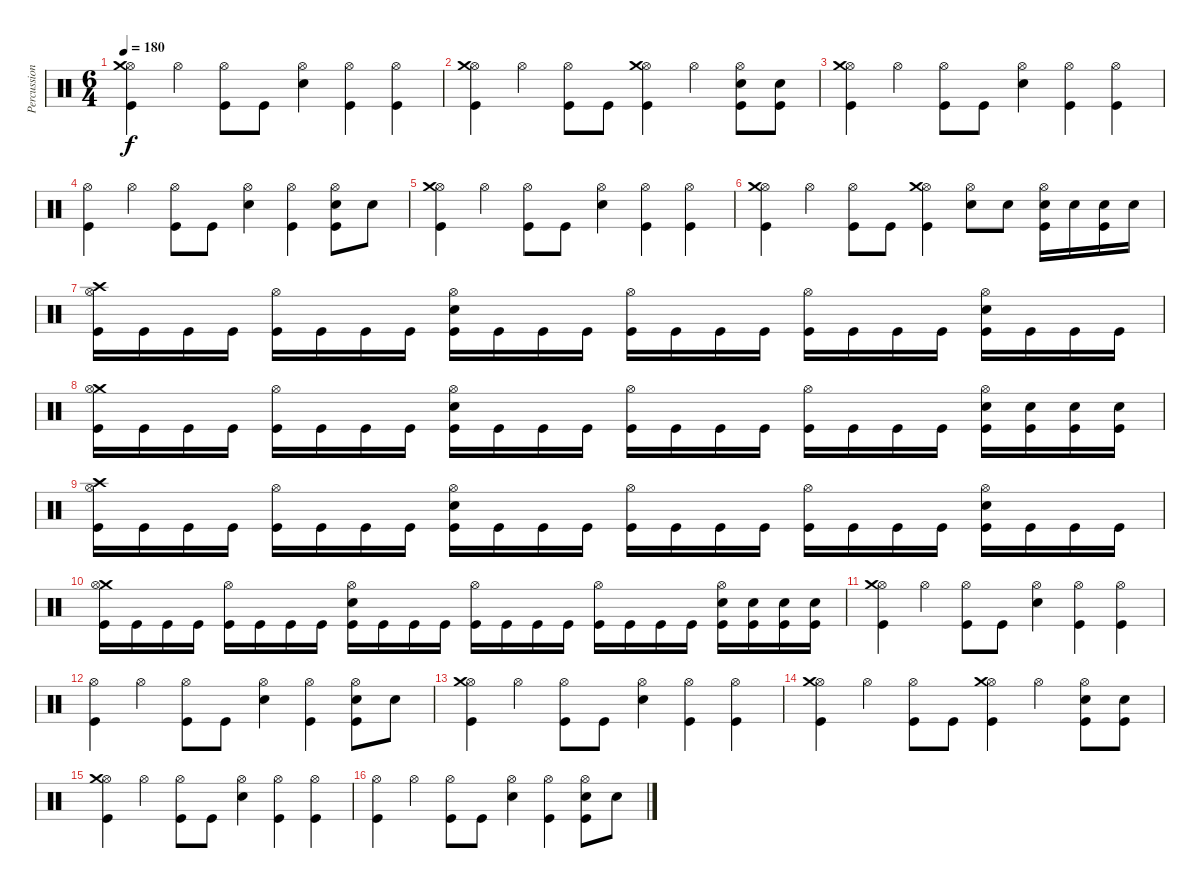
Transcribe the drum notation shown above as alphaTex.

\track ("Percussion" "Percussion") {instrument percussion}
\staff {score}
\articulation defaults
\ts (6 4)
\tempo 180
\clef neutral
\ks c
("Hi-Hat (open)" "Crash medium (hit)" "Kick (hit)").4{dy f} "Hi-Hat (open)".4 ("Hi-Hat (open)" "Kick (hit)").8 "Kick (hit)".8 ("Hi-Hat (open)" "Electric Snare (hit)").4 ("Hi-Hat (open)" "Kick (hit)").4 ("Hi-Hat (open)" "Kick (hit)").4 |
("Hi-Hat (open)" "Crash medium (hit)" "Kick (hit)").4 "Hi-Hat (open)".4 ("Hi-Hat (open)" "Kick (hit)").8 "Kick (hit)".8 ("Hi-Hat (open)" "Crash medium (hit)" "Kick (hit)").4 "Hi-Hat (open)".4 ("Hi-Hat (open)" "Electric Snare (hit)" "Kick (hit)").8 ("Electric Snare (hit)" "Kick (hit)").8 |
("Hi-Hat (open)" "Crash medium (hit)" "Kick (hit)").4 "Hi-Hat (open)".4 ("Hi-Hat (open)" "Kick (hit)").8 "Kick (hit)".8 ("Hi-Hat (open)" "Electric Snare (hit)").4 ("Hi-Hat (open)" "Kick (hit)").4 ("Hi-Hat (open)" "Kick (hit)").4 |
("Hi-Hat (open)" "Kick (hit)").4 "Hi-Hat (open)".4 ("Hi-Hat (open)" "Kick (hit)").8 "Kick (hit)".8 ("Hi-Hat (open)" "Electric Snare (hit)").4 ("Hi-Hat (open)" "Kick (hit)").4 ("Hi-Hat (open)" "Electric Snare (hit)" "Kick (hit)").8 "Electric Snare (hit)".8 |
("Hi-Hat (open)" "Crash medium (hit)" "Kick (hit)").4 "Hi-Hat (open)".4 ("Hi-Hat (open)" "Kick (hit)").8 "Kick (hit)".8 ("Hi-Hat (open)" "Electric Snare (hit)").4 ("Hi-Hat (open)" "Kick (hit)").4 ("Hi-Hat (open)" "Kick (hit)").4 |
("Hi-Hat (open)" "Crash medium (hit)" "Kick (hit)").4 "Hi-Hat (open)".4 ("Hi-Hat (open)" "Kick (hit)").8 "Kick (hit)".8 ("Hi-Hat (open)" "Crash medium (hit)" "Kick (hit)").4 ("Hi-Hat (open)" "Electric Snare (hit)").8 "Electric Snare (hit)".8 ("Hi-Hat (open)" "Electric Snare (hit)" "Kick (hit)").16 "Electric Snare (hit)".16 ("Electric Snare (hit)" "Kick (hit)").16 "Electric Snare (hit)".16 |
("Crash high (hit)" "Hi-Hat (open)" "Kick (hit)").16 "Kick (hit)".16 "Kick (hit)".16 "Kick (hit)".16 ("Hi-Hat (open)" "Kick (hit)").16 "Kick (hit)".16 "Kick (hit)".16 "Kick (hit)".16 ("Electric Snare (hit)" "Hi-Hat (open)" "Kick (hit)").16 "Kick (hit)".16 "Kick (hit)".16 "Kick (hit)".16 ("Hi-Hat (open)" "Kick (hit)").16 "Kick (hit)".16 "Kick (hit)".16 "Kick (hit)".16 ("Hi-Hat (open)" "Kick (hit)").16 "Kick (hit)".16 "Kick (hit)".16 "Kick (hit)".16 ("Electric Snare (hit)" "Hi-Hat (open)" "Kick (hit)").16 "Kick (hit)".16 "Kick (hit)".16 "Kick (hit)".16 |
("Crash medium (hit)" "Hi-Hat (open)" "Kick (hit)").16 "Kick (hit)".16 "Kick (hit)".16 "Kick (hit)".16 ("Hi-Hat (open)" "Kick (hit)").16 "Kick (hit)".16 "Kick (hit)".16 "Kick (hit)".16 ("Electric Snare (hit)" "Hi-Hat (open)" "Kick (hit)").16 "Kick (hit)".16 "Kick (hit)".16 "Kick (hit)".16 ("Hi-Hat (open)" "Kick (hit)").16 "Kick (hit)".16 "Kick (hit)".16 "Kick (hit)".16 ("Hi-Hat (open)" "Kick (hit)").16 "Kick (hit)".16 "Kick (hit)".16 "Kick (hit)".16 ("Electric Snare (hit)" "Hi-Hat (open)" "Kick (hit)").16 ("Electric Snare (hit)" "Kick (hit)").16 ("Electric Snare (hit)" "Kick (hit)").16 ("Electric Snare (hit)" "Kick (hit)").16 |
("Crash high (hit)" "Hi-Hat (open)" "Kick (hit)").16 "Kick (hit)".16 "Kick (hit)".16 "Kick (hit)".16 ("Hi-Hat (open)" "Kick (hit)").16 "Kick (hit)".16 "Kick (hit)".16 "Kick (hit)".16 ("Electric Snare (hit)" "Hi-Hat (open)" "Kick (hit)").16 "Kick (hit)".16 "Kick (hit)".16 "Kick (hit)".16 ("Hi-Hat (open)" "Kick (hit)").16 "Kick (hit)".16 "Kick (hit)".16 "Kick (hit)".16 ("Hi-Hat (open)" "Kick (hit)").16 "Kick (hit)".16 "Kick (hit)".16 "Kick (hit)".16 ("Electric Snare (hit)" "Hi-Hat (open)" "Kick (hit)").16 "Kick (hit)".16 "Kick (hit)".16 "Kick (hit)".16 |
("Crash medium (hit)" "Hi-Hat (open)" "Kick (hit)").16 "Kick (hit)".16 "Kick (hit)".16 "Kick (hit)".16 ("Hi-Hat (open)" "Kick (hit)").16 "Kick (hit)".16 "Kick (hit)".16 "Kick (hit)".16 ("Electric Snare (hit)" "Hi-Hat (open)" "Kick (hit)").16 "Kick (hit)".16 "Kick (hit)".16 "Kick (hit)".16 ("Hi-Hat (open)" "Kick (hit)").16 "Kick (hit)".16 "Kick (hit)".16 "Kick (hit)".16 ("Hi-Hat (open)" "Kick (hit)").16 "Kick (hit)".16 "Kick (hit)".16 "Kick (hit)".16 ("Electric Snare (hit)" "Hi-Hat (open)" "Kick (hit)").16 ("Electric Snare (hit)" "Kick (hit)").16 ("Electric Snare (hit)" "Kick (hit)").16 ("Electric Snare (hit)" "Kick (hit)").16 |
("Hi-Hat (open)" "Crash medium (hit)" "Kick (hit)").4 "Hi-Hat (open)".4 ("Hi-Hat (open)" "Kick (hit)").8 "Kick (hit)".8 ("Hi-Hat (open)" "Electric Snare (hit)").4 ("Hi-Hat (open)" "Kick (hit)").4 ("Hi-Hat (open)" "Kick (hit)").4 |
("Hi-Hat (open)" "Kick (hit)").4 "Hi-Hat (open)".4 ("Hi-Hat (open)" "Kick (hit)").8 "Kick (hit)".8 ("Hi-Hat (open)" "Electric Snare (hit)").4 ("Hi-Hat (open)" "Kick (hit)").4 ("Hi-Hat (open)" "Electric Snare (hit)" "Kick (hit)").8 "Electric Snare (hit)".8 |
("Hi-Hat (open)" "Crash medium (hit)" "Kick (hit)").4 "Hi-Hat (open)".4 ("Hi-Hat (open)" "Kick (hit)").8 "Kick (hit)".8 ("Hi-Hat (open)" "Electric Snare (hit)").4 ("Hi-Hat (open)" "Kick (hit)").4 ("Hi-Hat (open)" "Kick (hit)").4 |
("Hi-Hat (open)" "Crash medium (hit)" "Kick (hit)").4 "Hi-Hat (open)".4 ("Hi-Hat (open)" "Kick (hit)").8 "Kick (hit)".8 ("Hi-Hat (open)" "Crash medium (hit)" "Kick (hit)").4 "Hi-Hat (open)".4 ("Hi-Hat (open)" "Electric Snare (hit)" "Kick (hit)").8 ("Electric Snare (hit)" "Kick (hit)").8 |
("Hi-Hat (open)" "Crash medium (hit)" "Kick (hit)").4 "Hi-Hat (open)".4 ("Hi-Hat (open)" "Kick (hit)").8 "Kick (hit)".8 ("Hi-Hat (open)" "Electric Snare (hit)").4 ("Hi-Hat (open)" "Kick (hit)").4 ("Hi-Hat (open)" "Kick (hit)").4 |
("Hi-Hat (open)" "Kick (hit)").4 "Hi-Hat (open)".4 ("Hi-Hat (open)" "Kick (hit)").8 "Kick (hit)".8 ("Hi-Hat (open)" "Electric Snare (hit)").4 ("Hi-Hat (open)" "Kick (hit)").4 ("Hi-Hat (open)" "Electric Snare (hit)" "Kick (hit)").8 "Electric Snare (hit)".8
